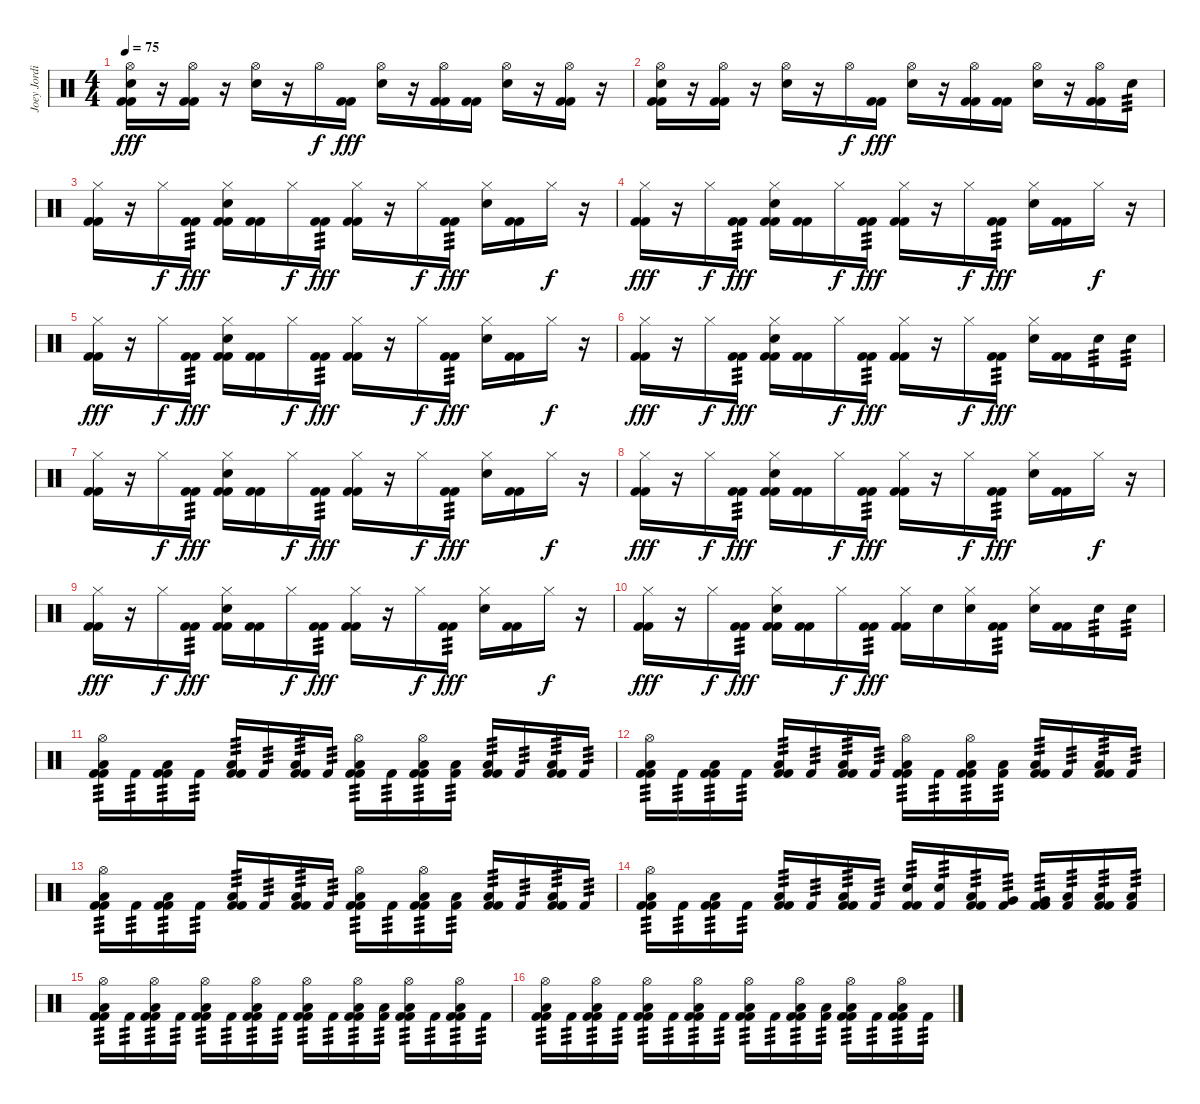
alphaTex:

\track ("Joey Jordison" "Joey Jordi") {instrument percussion}
\staff {score}
\articulation defaults
\ts (4 4)
\tempo 75
\clef neutral
\ks c
("Hi-Hat (open)" "Electric Snare (hit)" "Kick (hit) 2" "Kick (hit) 2").16{dy fff} r.16 ("Hi-Hat (open)" "Kick (hit) 2" "Kick (hit) 2").16 r.16 ("Hi-Hat (open)" "Electric Snare (hit)").16 r.16 "Hi-Hat (open)".16{dy f} ("Kick (hit) 2" "Kick (hit) 2").16{dy fff} ("Hi-Hat (open)" "Electric Snare (hit)").16 r.16 ("Hi-Hat (open)" "Kick (hit) 2" "Kick (hit) 2").16 ("Kick (hit) 2" "Kick (hit) 2").16 ("Hi-Hat (open)" "Electric Snare (hit)").16 r.16 ("Hi-Hat (open)" "Kick (hit) 2" "Kick (hit) 2").16 r.16 |
("Hi-Hat (open)" "Electric Snare (hit)" "Kick (hit) 2" "Kick (hit) 2").16 r.16 ("Hi-Hat (open)" "Kick (hit) 2" "Kick (hit) 2").16 r.16 ("Hi-Hat (open)" "Electric Snare (hit)").16 r.16 "Hi-Hat (open)".16{dy f} ("Kick (hit) 2" "Kick (hit) 2").16{dy fff} ("Hi-Hat (open)" "Electric Snare (hit)").16 r.16 ("Hi-Hat (open)" "Kick (hit) 2" "Kick (hit) 2").16 ("Kick (hit) 2" "Kick (hit) 2").16 ("Hi-Hat (open)" "Electric Snare (hit)").16 r.16 ("Hi-Hat (open)" "Kick (hit) 2" "Kick (hit) 2").16 "Electric Snare (hit)".16{tp 3} |
("Hi-Hat (closed)" "Kick (hit) 2" "Kick (hit) 2").16 r.16 "Hi-Hat (closed)".16{dy f} ("Kick (hit) 2" "Kick (hit) 2").16{tp 3 dy fff} ("Hi-Hat (closed)" "Electric Snare (hit)" "Kick (hit) 2" "Kick (hit) 2").16 ("Kick (hit) 2" "Kick (hit) 2").16 "Hi-Hat (closed)".16{dy f} ("Kick (hit) 2" "Kick (hit) 2").16{tp 3 dy fff} ("Hi-Hat (closed)" "Kick (hit) 2" "Kick (hit) 2").16 r.16 "Hi-Hat (closed)".16{dy f} ("Kick (hit) 2" "Kick (hit) 2").16{tp 3 dy fff} ("Hi-Hat (closed)" "Electric Snare (hit)").16 ("Kick (hit) 2" "Kick (hit) 2").16 "Hi-Hat (closed)".16{dy f} r.16 |
("Hi-Hat (closed)" "Kick (hit) 2" "Kick (hit) 2").16{dy fff} r.16 "Hi-Hat (closed)".16{dy f} ("Kick (hit) 2" "Kick (hit) 2").16{tp 3 dy fff} ("Hi-Hat (closed)" "Electric Snare (hit)" "Kick (hit) 2" "Kick (hit) 2").16 ("Kick (hit) 2" "Kick (hit) 2").16 "Hi-Hat (closed)".16{dy f} ("Kick (hit) 2" "Kick (hit) 2").16{tp 3 dy fff} ("Hi-Hat (closed)" "Kick (hit) 2" "Kick (hit) 2").16 r.16 "Hi-Hat (closed)".16{dy f} ("Kick (hit) 2" "Kick (hit) 2").16{tp 3 dy fff} ("Hi-Hat (closed)" "Electric Snare (hit)").16 ("Kick (hit) 2" "Kick (hit) 2").16 "Hi-Hat (closed)".16{dy f} r.16 |
("Hi-Hat (closed)" "Kick (hit) 2" "Kick (hit) 2").16{dy fff} r.16 "Hi-Hat (closed)".16{dy f} ("Kick (hit) 2" "Kick (hit) 2").16{tp 3 dy fff} ("Hi-Hat (closed)" "Electric Snare (hit)" "Kick (hit) 2" "Kick (hit) 2").16 ("Kick (hit) 2" "Kick (hit) 2").16 "Hi-Hat (closed)".16{dy f} ("Kick (hit) 2" "Kick (hit) 2").16{tp 3 dy fff} ("Hi-Hat (closed)" "Kick (hit) 2" "Kick (hit) 2").16 r.16 "Hi-Hat (closed)".16{dy f} ("Kick (hit) 2" "Kick (hit) 2").16{tp 3 dy fff} ("Hi-Hat (closed)" "Electric Snare (hit)").16 ("Kick (hit) 2" "Kick (hit) 2").16 "Hi-Hat (closed)".16{dy f} r.16 |
("Hi-Hat (closed)" "Kick (hit) 2" "Kick (hit) 2").16{dy fff} r.16 "Hi-Hat (closed)".16{dy f} ("Kick (hit) 2" "Kick (hit) 2").16{tp 3 dy fff} ("Hi-Hat (closed)" "Electric Snare (hit)" "Kick (hit) 2" "Kick (hit) 2").16 ("Kick (hit) 2" "Kick (hit) 2").16 "Hi-Hat (closed)".16{dy f} ("Kick (hit) 2" "Kick (hit) 2").16{tp 3 dy fff} ("Hi-Hat (closed)" "Kick (hit) 2" "Kick (hit) 2").16 r.16 "Hi-Hat (closed)".16{dy f} ("Kick (hit) 2" "Kick (hit) 2").16{tp 3 dy fff} ("Hi-Hat (closed)" "Electric Snare (hit)").16 ("Kick (hit) 2" "Kick (hit) 2").16 "Electric Snare (hit)".16{tp 3} "Electric Snare (hit)".16{tp 3} |
("Hi-Hat (closed)" "Kick (hit) 2" "Kick (hit) 2").16 r.16 "Hi-Hat (closed)".16{dy f} ("Kick (hit) 2" "Kick (hit) 2").16{tp 3 dy fff} ("Hi-Hat (closed)" "Electric Snare (hit)" "Kick (hit) 2" "Kick (hit) 2").16 ("Kick (hit) 2" "Kick (hit) 2").16 "Hi-Hat (closed)".16{dy f} ("Kick (hit) 2" "Kick (hit) 2").16{tp 3 dy fff} ("Hi-Hat (closed)" "Kick (hit) 2" "Kick (hit) 2").16 r.16 "Hi-Hat (closed)".16{dy f} ("Kick (hit) 2" "Kick (hit) 2").16{tp 3 dy fff} ("Hi-Hat (closed)" "Electric Snare (hit)").16 ("Kick (hit) 2" "Kick (hit) 2").16 "Hi-Hat (closed)".16{dy f} r.16 |
("Hi-Hat (closed)" "Kick (hit) 2" "Kick (hit) 2").16{dy fff} r.16 "Hi-Hat (closed)".16{dy f} ("Kick (hit) 2" "Kick (hit) 2").16{tp 3 dy fff} ("Hi-Hat (closed)" "Electric Snare (hit)" "Kick (hit) 2" "Kick (hit) 2").16 ("Kick (hit) 2" "Kick (hit) 2").16 "Hi-Hat (closed)".16{dy f} ("Kick (hit) 2" "Kick (hit) 2").16{tp 3 dy fff} ("Hi-Hat (closed)" "Kick (hit) 2" "Kick (hit) 2").16 r.16 "Hi-Hat (closed)".16{dy f} ("Kick (hit) 2" "Kick (hit) 2").16{tp 3 dy fff} ("Hi-Hat (closed)" "Electric Snare (hit)").16 ("Kick (hit) 2" "Kick (hit) 2").16 "Hi-Hat (closed)".16{dy f} r.16 |
("Hi-Hat (closed)" "Kick (hit) 2" "Kick (hit) 2").16{dy fff} r.16 "Hi-Hat (closed)".16{dy f} ("Kick (hit) 2" "Kick (hit) 2").16{tp 3 dy fff} ("Hi-Hat (closed)" "Electric Snare (hit)" "Kick (hit) 2" "Kick (hit) 2").16 ("Kick (hit) 2" "Kick (hit) 2").16 "Hi-Hat (closed)".16{dy f} ("Kick (hit) 2" "Kick (hit) 2").16{tp 3 dy fff} ("Hi-Hat (closed)" "Kick (hit) 2" "Kick (hit) 2").16 r.16 "Hi-Hat (closed)".16{dy f} ("Kick (hit) 2" "Kick (hit) 2").16{tp 3 dy fff} ("Hi-Hat (closed)" "Electric Snare (hit)").16 ("Kick (hit) 2" "Kick (hit) 2").16 "Hi-Hat (closed)".16{dy f} r.16 |
("Hi-Hat (closed)" "Kick (hit) 2" "Kick (hit) 2").16{dy fff} r.16 "Hi-Hat (closed)".16{dy f} ("Kick (hit) 2" "Kick (hit) 2").16{tp 3 dy fff} ("Hi-Hat (closed)" "Electric Snare (hit)" "Kick (hit) 2" "Kick (hit) 2").16 ("Kick (hit) 2" "Kick (hit) 2").16 "Hi-Hat (closed)".16{dy f} ("Kick (hit) 2" "Kick (hit) 2").16{tp 3 dy fff} ("Hi-Hat (closed)" "Kick (hit) 2" "Kick (hit) 2").16 "Electric Snare (hit)".16 ("Hi-Hat (closed)" "Electric Snare (hit)").16 ("Kick (hit) 2" "Kick (hit) 2").16{tp 3} ("Hi-Hat (closed)" "Electric Snare (hit)").16 ("Kick (hit) 2" "Kick (hit) 2").16 "Electric Snare (hit)".16{tp 3} "Electric Snare (hit)".16{tp 3} |
("Hi-Hat (open)" "Low Floor Tom (hit)" "Kick (hit) 2" "Kick (hit) 2").16{tp 3} "Kick (hit) 2".16{tp 3} ("Low Floor Tom (hit)" "Kick (hit) 2" "Kick (hit) 2").16{tp 3} "Kick (hit) 2".16{tp 3} ("Low Floor Tom (hit)" "Kick (hit) 2" "Kick (hit) 2").16{tp 3} "Kick (hit) 2".16{tp 3} ("Low Floor Tom (hit)" "Kick (hit) 2" "Kick (hit) 2").16{tp 3} "Kick (hit) 2".16{tp 3} ("Hi-Hat (open)" "Low Floor Tom (hit)" "Kick (hit) 2" "Kick (hit) 2").16{tp 3} "Kick (hit) 2".16{tp 3} ("Hi-Hat (open)" "Low Floor Tom (hit)" "Kick (hit) 2" "Kick (hit) 2").16{tp 3} ("Low Floor Tom (hit)" "Kick (hit) 2").16{tp 3} ("Low Floor Tom (hit)" "Kick (hit) 2" "Kick (hit) 2").16{tp 3} "Kick (hit) 2".16{tp 3} ("Low Floor Tom (hit)" "Kick (hit) 2" "Kick (hit) 2").16{tp 3} "Kick (hit) 2".16{tp 3} |
("Hi-Hat (open)" "Low Floor Tom (hit)" "Kick (hit) 2" "Kick (hit) 2").16{tp 3} "Kick (hit) 2".16{tp 3} ("Low Floor Tom (hit)" "Kick (hit) 2" "Kick (hit) 2").16{tp 3} "Kick (hit) 2".16{tp 3} ("Low Floor Tom (hit)" "Kick (hit) 2" "Kick (hit) 2").16{tp 3} "Kick (hit) 2".16{tp 3} ("Low Floor Tom (hit)" "Kick (hit) 2" "Kick (hit) 2").16{tp 3} "Kick (hit) 2".16{tp 3} ("Hi-Hat (open)" "Low Floor Tom (hit)" "Kick (hit) 2" "Kick (hit) 2").16{tp 3} "Kick (hit) 2".16{tp 3} ("Hi-Hat (open)" "Low Floor Tom (hit)" "Kick (hit) 2" "Kick (hit) 2").16{tp 3} ("Low Floor Tom (hit)" "Kick (hit) 2").16{tp 3} ("Low Floor Tom (hit)" "Kick (hit) 2" "Kick (hit) 2").16{tp 3} "Kick (hit) 2".16{tp 3} ("Low Floor Tom (hit)" "Kick (hit) 2" "Kick (hit) 2").16{tp 3} "Kick (hit) 2".16{tp 3} |
("Hi-Hat (open)" "Low Floor Tom (hit)" "Kick (hit) 2" "Kick (hit) 2").16{tp 3} "Kick (hit) 2".16{tp 3} ("Low Floor Tom (hit)" "Kick (hit) 2" "Kick (hit) 2").16{tp 3} "Kick (hit) 2".16{tp 3} ("Low Floor Tom (hit)" "Kick (hit) 2" "Kick (hit) 2").16{tp 3} "Kick (hit) 2".16{tp 3} ("Low Floor Tom (hit)" "Kick (hit) 2" "Kick (hit) 2").16{tp 3} "Kick (hit) 2".16{tp 3} ("Hi-Hat (open)" "Low Floor Tom (hit)" "Kick (hit) 2" "Kick (hit) 2").16{tp 3} "Kick (hit) 2".16{tp 3} ("Hi-Hat (open)" "Low Floor Tom (hit)" "Kick (hit) 2" "Kick (hit) 2").16{tp 3} ("Low Floor Tom (hit)" "Kick (hit) 2").16{tp 3} ("Low Floor Tom (hit)" "Kick (hit) 2" "Kick (hit) 2").16{tp 3} "Kick (hit) 2".16{tp 3} ("Low Floor Tom (hit)" "Kick (hit) 2" "Kick (hit) 2").16{tp 3} "Kick (hit) 2".16{tp 3} |
("Hi-Hat (open)" "Low Floor Tom (hit)" "Kick (hit) 2" "Kick (hit) 2").16{tp 3} "Kick (hit) 2".16{tp 3} ("Low Floor Tom (hit)" "Kick (hit) 2" "Kick (hit) 2").16{tp 3} "Kick (hit) 2".16{tp 3} ("Low Floor Tom (hit)" "Kick (hit) 2" "Kick (hit) 2").16{tp 3} "Kick (hit) 2".16{tp 3} ("Low Floor Tom (hit)" "Kick (hit) 2" "Kick (hit) 2").16{tp 3} "Kick (hit) 2".16{tp 3} ("Electric Snare (hit)" "Kick (hit) 2" "Kick (hit) 2").16{tp 3} ("Electric Snare (hit)" "Kick (hit) 2").16{tp 3} ("Low Tom (hit)" "Kick (hit) 2" "Kick (hit) 2").16{tp 3} ("Very Low Tom (hit)" "Kick (hit) 2").16{tp 3} ("Very Low Tom (hit)" "Kick (hit) 2" "Kick (hit) 2").16{tp 3} ("Low Floor Tom (hit)" "Kick (hit) 2").16{tp 3} ("Low Floor Tom (hit)" "Kick (hit) 2" "Kick (hit) 2").16{tp 3} ("Low Floor Tom (hit)" "Kick (hit) 2").16{tp 3} |
("Hi-Hat (open)" "Low Floor Tom (hit)" "Kick (hit) 2" "Kick (hit) 2").16{tp 3} "Kick (hit) 2".16{tp 3} ("Hi-Hat (open)" "Low Floor Tom (hit)" "Kick (hit) 2" "Kick (hit) 2").16{tp 3} "Kick (hit) 2".16{tp 3} ("Hi-Hat (open)" "Low Floor Tom (hit)" "Kick (hit) 2" "Kick (hit) 2").16{tp 3} "Kick (hit) 2".16{tp 3} ("Hi-Hat (open)" "Low Floor Tom (hit)" "Kick (hit) 2" "Kick (hit) 2").16{tp 3} "Kick (hit) 2".16{tp 3} ("Hi-Hat (open)" "Low Floor Tom (hit)" "Kick (hit) 2" "Kick (hit) 2").16{tp 3} "Kick (hit) 2".16{tp 3} ("Hi-Hat (open)" "Low Floor Tom (hit)" "Kick (hit) 2" "Kick (hit) 2").16{tp 3} ("Low Floor Tom (hit)" "Kick (hit) 2").16{tp 3} ("Hi-Hat (open)" "Low Floor Tom (hit)" "Kick (hit) 2" "Kick (hit) 2").16{tp 3} "Kick (hit) 2".16{tp 3} ("Hi-Hat (open)" "Low Floor Tom (hit)" "Kick (hit) 2" "Kick (hit) 2").16{tp 3} "Kick (hit) 2".16{tp 3} |
("Hi-Hat (open)" "Low Floor Tom (hit)" "Kick (hit) 2" "Kick (hit) 2").16{tp 3} "Kick (hit) 2".16{tp 3} ("Hi-Hat (open)" "Low Floor Tom (hit)" "Kick (hit) 2" "Kick (hit) 2").16{tp 3} "Kick (hit) 2".16{tp 3} ("Hi-Hat (open)" "Low Floor Tom (hit)" "Kick (hit) 2" "Kick (hit) 2").16{tp 3} "Kick (hit) 2".16{tp 3} ("Hi-Hat (open)" "Low Floor Tom (hit)" "Kick (hit) 2" "Kick (hit) 2").16{tp 3} "Kick (hit) 2".16{tp 3} ("Hi-Hat (open)" "Low Floor Tom (hit)" "Kick (hit) 2" "Kick (hit) 2").16{tp 3} "Kick (hit) 2".16{tp 3} ("Hi-Hat (open)" "Low Floor Tom (hit)" "Kick (hit) 2" "Kick (hit) 2").16{tp 3} ("Low Floor Tom (hit)" "Kick (hit) 2").16{tp 3} ("Hi-Hat (open)" "Low Floor Tom (hit)" "Kick (hit) 2" "Kick (hit) 2").16{tp 3} "Kick (hit) 2".16{tp 3} ("Hi-Hat (open)" "Low Floor Tom (hit)" "Kick (hit) 2" "Kick (hit) 2").16{tp 3} "Kick (hit) 2".16{tp 3}
